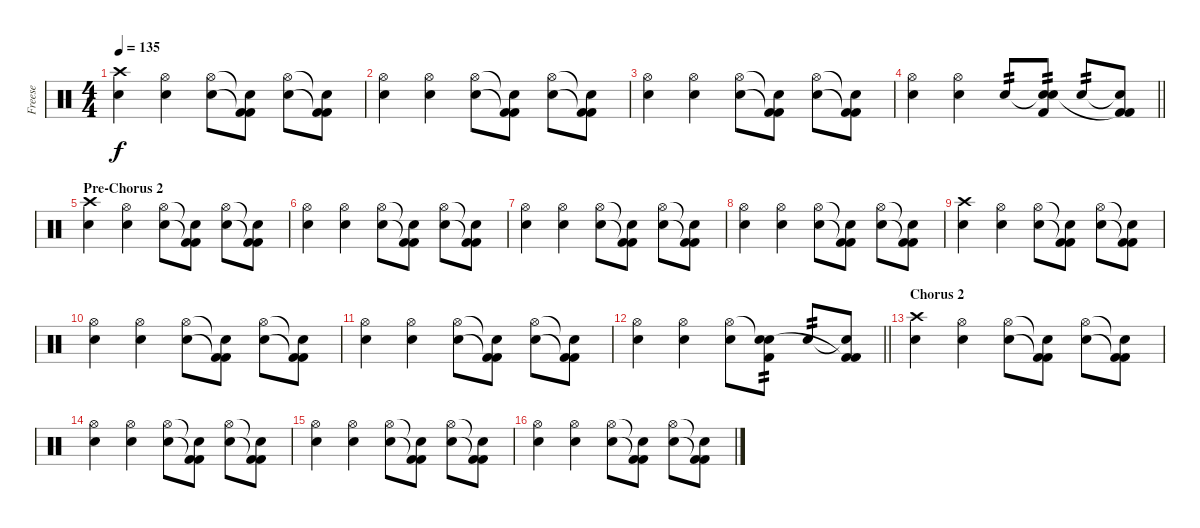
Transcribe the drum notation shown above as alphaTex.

\track ("Freese" "Freese") {instrument percussion}
\staff {score}
\articulation defaults
\ts (4 4)
\tempo 135
\clef neutral
\ks c
("Crash high (hit)" "Electric Snare (hit)").4{dy f} ("Hi-Hat (open)" "Electric Snare (hit)").4 ("Hi-Hat (open)" "Electric Snare (hit)").8 ("Snare (hit)"{t} "Kick (hit) 2"{t} "Kick (hit) 2").8 ("Hi-Hat (open)" "Electric Snare (hit)").8 ("Snare (hit)"{t} "Kick (hit) 2"{t} "Kick (hit) 2").8 |
("Hi-Hat (open)" "Electric Snare (hit)").4 ("Hi-Hat (open)" "Electric Snare (hit)").4 ("Hi-Hat (open)" "Electric Snare (hit)").8 ("Snare (hit)"{t} "Kick (hit) 2"{t} "Kick (hit) 2").8 ("Hi-Hat (open)" "Electric Snare (hit)").8 ("Snare (hit)"{t} "Kick (hit) 2"{t} "Kick (hit) 2").8 |
("Hi-Hat (open)" "Electric Snare (hit)").4 ("Hi-Hat (open)" "Electric Snare (hit)").4 ("Hi-Hat (open)" "Electric Snare (hit)").8 ("Snare (hit)"{t} "Kick (hit) 2"{t} "Kick (hit) 2").8 ("Hi-Hat (open)" "Electric Snare (hit)").8 ("Snare (hit)"{t} "Kick (hit) 2"{t} "Kick (hit) 2").8 |
\barLineRight lightlight
("Hi-Hat (open)" "Electric Snare (hit)").4 ("Hi-Hat (open)" "Electric Snare (hit)").4 "Electric Snare (hit)".8{tp 2} ("Snare (hit)"{t} "Electric Snare (hit)" "Kick (hit) 2").8{tp 2} "Electric Snare (hit)".8{tp 2} ("Snare (hit)"{t} "Kick (hit) 2"{t} "Kick (hit) 2").8 |
\section ("" "Pre-Chorus 2")
("Crash high (hit)" "Electric Snare (hit)").4 ("Hi-Hat (open)" "Electric Snare (hit)").4 ("Hi-Hat (open)" "Electric Snare (hit)").8 ("Snare (hit)"{t} "Kick (hit) 2"{t} "Kick (hit) 2").8 ("Hi-Hat (open)" "Electric Snare (hit)").8 ("Snare (hit)"{t} "Kick (hit) 2"{t} "Kick (hit) 2").8 |
("Hi-Hat (open)" "Electric Snare (hit)").4 ("Hi-Hat (open)" "Electric Snare (hit)").4 ("Hi-Hat (open)" "Electric Snare (hit)").8 ("Snare (hit)"{t} "Kick (hit) 2"{t} "Kick (hit) 2").8 ("Hi-Hat (open)" "Electric Snare (hit)").8 ("Snare (hit)"{t} "Kick (hit) 2"{t} "Kick (hit) 2").8 |
("Hi-Hat (open)" "Electric Snare (hit)").4 ("Hi-Hat (open)" "Electric Snare (hit)").4 ("Hi-Hat (open)" "Electric Snare (hit)").8 ("Snare (hit)"{t} "Kick (hit) 2"{t} "Kick (hit) 2").8 ("Hi-Hat (open)" "Electric Snare (hit)").8 ("Snare (hit)"{t} "Kick (hit) 2"{t} "Kick (hit) 2").8 |
("Hi-Hat (open)" "Electric Snare (hit)").4 ("Hi-Hat (open)" "Electric Snare (hit)").4 ("Hi-Hat (open)" "Electric Snare (hit)").8 ("Snare (hit)"{t} "Kick (hit) 2"{t} "Kick (hit) 2").8 ("Hi-Hat (open)" "Electric Snare (hit)").8 ("Snare (hit)"{t} "Kick (hit) 2"{t} "Kick (hit) 2").8 |
("Crash high (hit)" "Electric Snare (hit)").4 ("Hi-Hat (open)" "Electric Snare (hit)").4 ("Hi-Hat (open)" "Electric Snare (hit)").8 ("Snare (hit)"{t} "Kick (hit) 2"{t} "Kick (hit) 2").8 ("Hi-Hat (open)" "Electric Snare (hit)").8 ("Snare (hit)"{t} "Kick (hit) 2"{t} "Kick (hit) 2").8 |
("Hi-Hat (open)" "Electric Snare (hit)").4 ("Hi-Hat (open)" "Electric Snare (hit)").4 ("Hi-Hat (open)" "Electric Snare (hit)").8 ("Snare (hit)"{t} "Kick (hit) 2"{t} "Kick (hit) 2").8 ("Hi-Hat (open)" "Electric Snare (hit)").8 ("Snare (hit)"{t} "Kick (hit) 2"{t} "Kick (hit) 2").8 |
("Hi-Hat (open)" "Electric Snare (hit)").4 ("Hi-Hat (open)" "Electric Snare (hit)").4 ("Hi-Hat (open)" "Electric Snare (hit)").8 ("Snare (hit)"{t} "Kick (hit) 2"{t} "Kick (hit) 2").8 ("Hi-Hat (open)" "Electric Snare (hit)").8 ("Snare (hit)"{t} "Kick (hit) 2"{t} "Kick (hit) 2").8 |
\barLineRight lightlight
("Hi-Hat (open)" "Electric Snare (hit)").4 ("Hi-Hat (open)" "Electric Snare (hit)").4 ("Hi-Hat (open)" "Electric Snare (hit)").8 ("Snare (hit)"{t} "Electric Snare (hit)" "Kick (hit) 2").8{tp 2} "Electric Snare (hit)".8{tp 2} ("Snare (hit)"{t} "Kick (hit) 2"{t} "Kick (hit) 2").8 |
\section ("" "Chorus 2")
("Crash high (hit)" "Electric Snare (hit)").4 ("Hi-Hat (open)" "Electric Snare (hit)").4 ("Hi-Hat (open)" "Electric Snare (hit)").8 ("Snare (hit)"{t} "Kick (hit) 2"{t} "Kick (hit) 2").8 ("Hi-Hat (open)" "Electric Snare (hit)").8 ("Snare (hit)"{t} "Kick (hit) 2"{t} "Kick (hit) 2").8 |
("Hi-Hat (open)" "Electric Snare (hit)").4 ("Hi-Hat (open)" "Electric Snare (hit)").4 ("Hi-Hat (open)" "Electric Snare (hit)").8 ("Snare (hit)"{t} "Kick (hit) 2"{t} "Kick (hit) 2").8 ("Hi-Hat (open)" "Electric Snare (hit)").8 ("Snare (hit)"{t} "Kick (hit) 2"{t} "Kick (hit) 2").8 |
("Hi-Hat (open)" "Electric Snare (hit)").4 ("Hi-Hat (open)" "Electric Snare (hit)").4 ("Hi-Hat (open)" "Electric Snare (hit)").8 ("Snare (hit)"{t} "Kick (hit) 2"{t} "Kick (hit) 2").8 ("Hi-Hat (open)" "Electric Snare (hit)").8 ("Snare (hit)"{t} "Kick (hit) 2"{t} "Kick (hit) 2").8 |
("Hi-Hat (open)" "Electric Snare (hit)").4 ("Hi-Hat (open)" "Electric Snare (hit)").4 ("Hi-Hat (open)" "Electric Snare (hit)").8 ("Snare (hit)"{t} "Kick (hit) 2"{t} "Kick (hit) 2").8 ("Hi-Hat (open)" "Electric Snare (hit)").8 ("Snare (hit)"{t} "Kick (hit) 2"{t} "Kick (hit) 2").8
